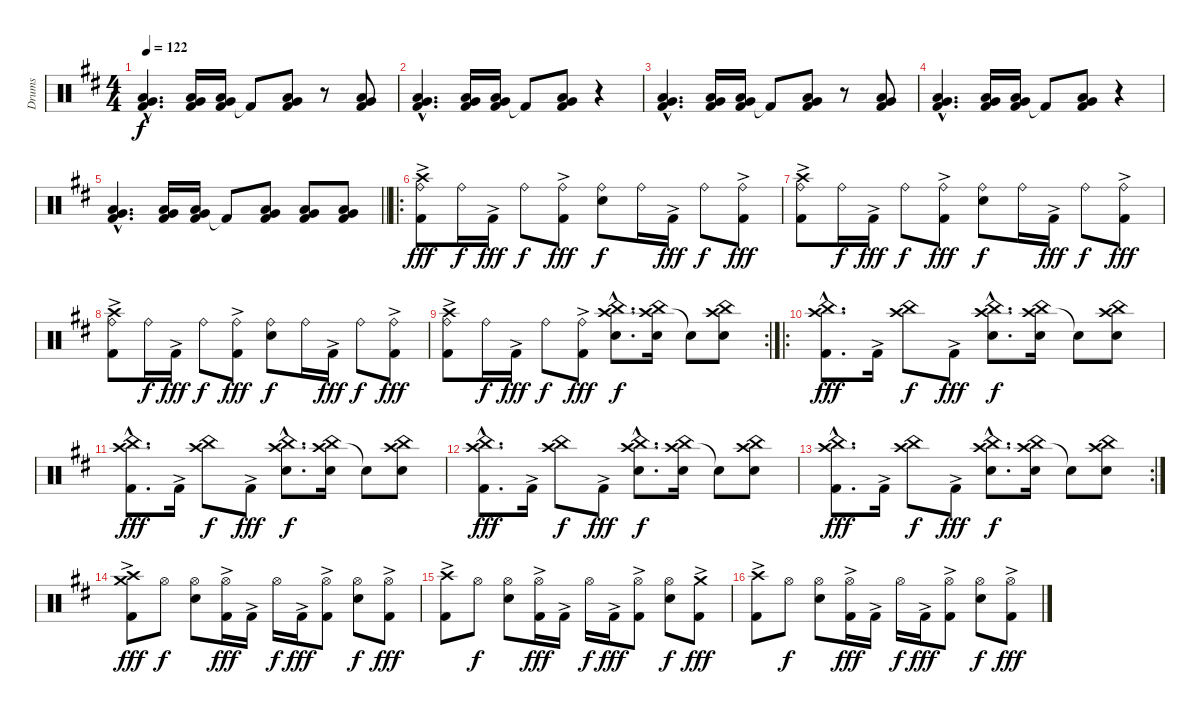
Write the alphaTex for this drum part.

\track ("Drums" "Drums") {instrument percussion}
\staff {score}
\articulation defaults
\ts (4 4)
\tempo 122
\clef neutral
\ks bminor
("Very Low Tom (hit)"{hac} "Low Floor Tom (hit)"{hac} "Kick (hit) 2"{hac}).4{d dy f} ("Very Low Tom (hit)" "Low Floor Tom (hit)" "Kick (hit) 2").16 ("Very Low Tom (hit)" "Low Floor Tom (hit)" "Kick (hit) 2").16 "Kick (hit) 2"{t}.8 ("Very Low Tom (hit)" "Low Floor Tom (hit)" "Kick (hit) 2").8 r.8 ("Very Low Tom (hit)" "Low Floor Tom (hit)" "Kick (hit) 2").8 |
("Very Low Tom (hit)"{hac} "Low Floor Tom (hit)"{hac} "Kick (hit) 2"{hac}).4{d} ("Very Low Tom (hit)" "Low Floor Tom (hit)" "Kick (hit) 2").16 ("Very Low Tom (hit)" "Low Floor Tom (hit)" "Kick (hit) 2").16 "Kick (hit) 2"{t}.8 ("Very Low Tom (hit)" "Low Floor Tom (hit)" "Kick (hit) 2").8 r.4 |
("Very Low Tom (hit)"{hac} "Low Floor Tom (hit)"{hac} "Kick (hit) 2"{hac}).4{d} ("Very Low Tom (hit)" "Low Floor Tom (hit)" "Kick (hit) 2").16 ("Very Low Tom (hit)" "Low Floor Tom (hit)" "Kick (hit) 2").16 "Kick (hit) 2"{t}.8 ("Very Low Tom (hit)" "Low Floor Tom (hit)" "Kick (hit) 2").8 r.8 ("Very Low Tom (hit)" "Low Floor Tom (hit)" "Kick (hit) 2").8 |
("Very Low Tom (hit)"{hac} "Low Floor Tom (hit)"{hac} "Kick (hit) 2"{hac}).4{d} ("Very Low Tom (hit)" "Low Floor Tom (hit)" "Kick (hit) 2").16 ("Very Low Tom (hit)" "Low Floor Tom (hit)" "Kick (hit) 2").16 "Kick (hit) 2"{t}.8 ("Very Low Tom (hit)" "Low Floor Tom (hit)" "Kick (hit) 2").8 r.4 |
\barLineRight lightlight
("Very Low Tom (hit)"{hac} "Low Floor Tom (hit)"{hac} "Kick (hit) 2"{hac}).4{d} ("Very Low Tom (hit)" "Low Floor Tom (hit)" "Kick (hit) 2").16 ("Very Low Tom (hit)" "Low Floor Tom (hit)" "Kick (hit) 2").16 "Kick (hit) 2"{t}.8 ("Very Low Tom (hit)" "Low Floor Tom (hit)" "Kick (hit) 2").8 ("Very Low Tom (hit)" "Low Floor Tom (hit)" "Kick (hit) 2").8 ("Very Low Tom (hit)" "Low Floor Tom (hit)" "Kick (hit) 2").8 |
\ro
("Crash high (hit)" "Ride (bell)" "Kick (hit) 2"{ac}).8{dy fff} "Ride (bell)".16{dy f} "Kick (hit) 2"{ac}.16{dy fff} "Ride (bell)".8{dy f} ("Ride (bell)" "Kick (hit) 2"{ac}).8{dy fff} ("Ride (bell)" "Snare (hit) 2").8{dy f} "Ride (bell)".16 "Kick (hit) 2"{ac}.16{dy fff} "Ride (bell)".8{dy f} ("Ride (bell)" "Kick (hit) 2"{ac}).8{dy fff} |
("Crash high (hit)" "Ride (bell)" "Kick (hit) 2"{ac}).8 "Ride (bell)".16{dy f} "Kick (hit) 2"{ac}.16{dy fff} "Ride (bell)".8{dy f} ("Ride (bell)" "Kick (hit) 2"{ac}).8{dy fff} ("Ride (bell)" "Snare (hit) 2").8{dy f} "Ride (bell)".16 "Kick (hit) 2"{ac}.16{dy fff} "Ride (bell)".8{dy f} ("Ride (bell)" "Kick (hit) 2"{ac}).8{dy fff} |
("Crash high (hit)" "Ride (bell)" "Kick (hit) 2"{ac}).8 "Ride (bell)".16{dy f} "Kick (hit) 2"{ac}.16{dy fff} "Ride (bell)".8{dy f} ("Ride (bell)" "Kick (hit) 2"{ac}).8{dy fff} ("Ride (bell)" "Snare (hit) 2").8{dy f} "Ride (bell)".16 "Kick (hit) 2"{ac}.16{dy fff} "Ride (bell)".8{dy f} ("Ride (bell)" "Kick (hit) 2"{ac}).8{dy fff} |
\rc 2
("Crash high (hit)" "Ride (bell)" "Kick (hit) 2"{ac}).8 "Ride (bell)".16{dy f} "Kick (hit) 2"{ac}.16{dy fff} "Ride (bell)".8{dy f} ("Ride (bell)" "Kick (hit) 2"{ac}).8{dy fff} ("Crash high (hit)"{hac} "China (hit)"{hac} "Snare (hit) 2"{hac}).8{d dy f} ("Crash high (hit)" "China (hit)" "Snare (hit) 2").16 "Snare (hit)"{t}.8 ("Crash high (hit)" "China (hit)" "Snare (hit) 2").8 |
\ro
("Crash high (hit)"{hac} "China (hit)"{hac} "Kick (hit) 2"{hac}).8{d dy fff} "Kick (hit) 2"{ac}.16 ("Crash high (hit)" "China (hit)").8{dy f} "Kick (hit) 2"{ac}.8{dy fff} ("Crash high (hit)"{hac} "China (hit)"{hac} "Snare (hit) 2"{hac}).8{d dy f} ("Crash high (hit)" "China (hit)" "Snare (hit) 2").16 "Snare (hit)"{t}.8 ("Crash high (hit)" "China (hit)" "Snare (hit) 2").8 |
("Crash high (hit)"{hac} "China (hit)"{hac} "Kick (hit) 2"{hac}).8{d dy fff} "Kick (hit) 2"{ac}.16 ("Crash high (hit)" "China (hit)").8{dy f} "Kick (hit) 2"{ac}.8{dy fff} ("Crash high (hit)"{hac} "China (hit)"{hac} "Snare (hit) 2"{hac}).8{d dy f} ("Crash high (hit)" "China (hit)" "Snare (hit) 2").16 "Snare (hit)"{t}.8 ("Crash high (hit)" "China (hit)" "Snare (hit) 2").8 |
("Crash high (hit)"{hac} "China (hit)"{hac} "Kick (hit) 2"{hac}).8{d dy fff} "Kick (hit) 2"{ac}.16 ("Crash high (hit)" "China (hit)").8{dy f} "Kick (hit) 2"{ac}.8{dy fff} ("Crash high (hit)"{hac} "China (hit)"{hac} "Snare (hit) 2"{hac}).8{d dy f} ("Crash high (hit)" "China (hit)" "Snare (hit) 2").16 "Snare (hit)"{t}.8 ("Crash high (hit)" "China (hit)" "Snare (hit) 2").8 |
\rc 2
("Crash high (hit)"{hac} "China (hit)"{hac} "Kick (hit) 2"{hac}).8{d dy fff} "Kick (hit) 2"{ac}.16 ("Crash high (hit)" "China (hit)").8{dy f} "Kick (hit) 2"{ac}.8{dy fff} ("Crash high (hit)"{hac} "China (hit)"{hac} "Snare (hit) 2"{hac}).8{d dy f} ("Crash high (hit)" "China (hit)" "Snare (hit) 2").16 "Snare (hit)"{t}.8 ("Crash high (hit)" "China (hit)" "Snare (hit) 2").8 |
("Crash high (hit)" "Crash medium (hit)" "Kick (hit) 2"{ac}).8{dy fff} "Hi-Hat (open)".8{dy f} ("Hi-Hat (open)" "Snare (hit) 2").8 ("Hi-Hat (open)" "Kick (hit) 2"{ac}).16{dy fff} "Kick (hit) 2"{ac}.16 "Hi-Hat (open)".16{dy f} "Kick (hit) 2"{ac}.16{dy fff} ("Hi-Hat (open)" "Kick (hit) 2"{ac}).8 ("Hi-Hat (open)" "Snare (hit) 2").8{dy f} ("Hi-Hat (open)" "Kick (hit) 2"{ac}).8{dy fff} |
("Crash high (hit)" "Kick (hit) 2"{ac}).8 "Hi-Hat (open)".8{dy f} ("Hi-Hat (open)" "Snare (hit) 2").8 ("Hi-Hat (open)" "Kick (hit) 2"{ac}).16{dy fff} "Kick (hit) 2"{ac}.16 "Hi-Hat (open)".16{dy f} "Kick (hit) 2"{ac}.16{dy fff} ("Hi-Hat (open)" "Kick (hit) 2"{ac}).8 ("Hi-Hat (open)" "Snare (hit) 2").8{dy f} ("Crash medium (hit)" "Kick (hit) 2"{ac}).8{dy fff} |
("Crash high (hit)" "Kick (hit) 2"{ac}).8 "Hi-Hat (open)".8{dy f} ("Hi-Hat (open)" "Snare (hit) 2").8 ("Hi-Hat (open)" "Kick (hit) 2"{ac}).16{dy fff} "Kick (hit) 2"{ac}.16 "Hi-Hat (open)".16{dy f} "Kick (hit) 2"{ac}.16{dy fff} ("Hi-Hat (open)" "Kick (hit) 2"{ac}).8 ("Hi-Hat (open)" "Snare (hit) 2").8{dy f} ("Hi-Hat (open)" "Kick (hit) 2"{ac}).8{dy fff}
